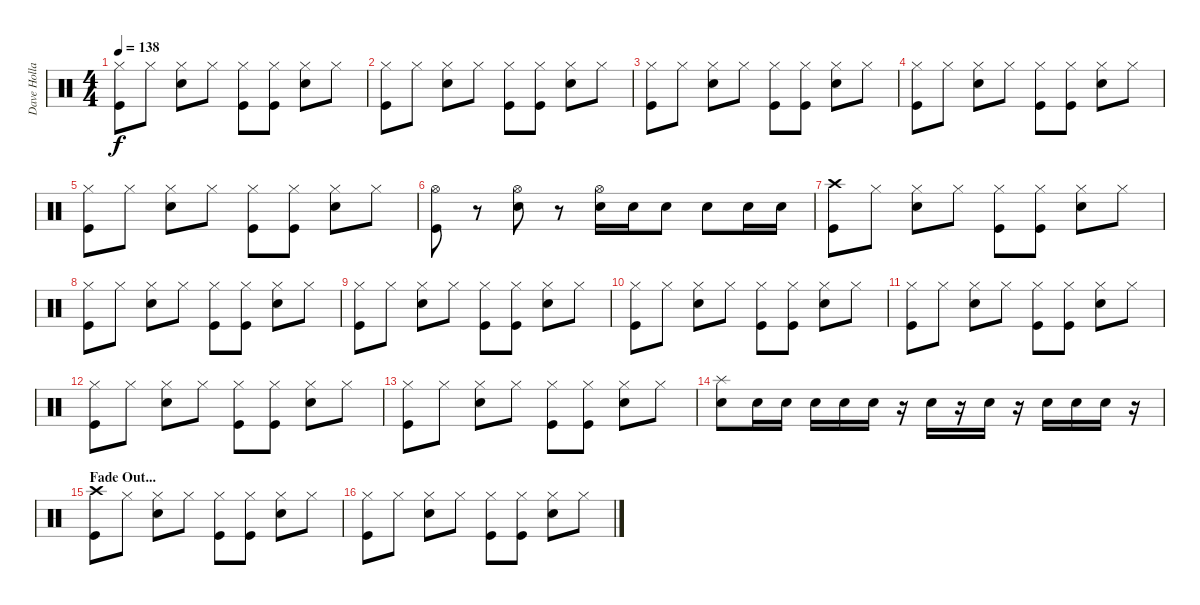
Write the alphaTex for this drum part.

\track ("Dave Holland" "Dave Holla") {instrument percussion}
\staff {score}
\articulation defaults
\ts (4 4)
\tempo 138
\clef neutral
\ks c
("Hi-Hat (closed)" "Kick (hit)").8{dy f} "Hi-Hat (closed)".8 ("Hi-Hat (closed)" "Electric Snare (hit)").8 "Hi-Hat (closed)".8 ("Hi-Hat (closed)" "Kick (hit)").8 ("Hi-Hat (closed)" "Kick (hit)").8 ("Hi-Hat (closed)" "Electric Snare (hit)").8 "Hi-Hat (closed)".8 |
("Hi-Hat (closed)" "Kick (hit)").8 "Hi-Hat (closed)".8 ("Hi-Hat (closed)" "Electric Snare (hit)").8 "Hi-Hat (closed)".8 ("Hi-Hat (closed)" "Kick (hit)").8 ("Hi-Hat (closed)" "Kick (hit)").8 ("Hi-Hat (closed)" "Electric Snare (hit)").8 "Hi-Hat (closed)".8 |
("Hi-Hat (closed)" "Kick (hit)").8 "Hi-Hat (closed)".8 ("Hi-Hat (closed)" "Electric Snare (hit)").8 "Hi-Hat (closed)".8 ("Hi-Hat (closed)" "Kick (hit)").8 ("Hi-Hat (closed)" "Kick (hit)").8 ("Hi-Hat (closed)" "Electric Snare (hit)").8 "Hi-Hat (closed)".8 |
("Hi-Hat (closed)" "Kick (hit)").8 "Hi-Hat (closed)".8 ("Hi-Hat (closed)" "Electric Snare (hit)").8 "Hi-Hat (closed)".8 ("Hi-Hat (closed)" "Kick (hit)").8 ("Hi-Hat (closed)" "Kick (hit)").8 ("Hi-Hat (closed)" "Electric Snare (hit)").8 "Hi-Hat (closed)".8 |
("Hi-Hat (closed)" "Kick (hit)").8 "Hi-Hat (closed)".8 ("Hi-Hat (closed)" "Electric Snare (hit)").8 "Hi-Hat (closed)".8 ("Hi-Hat (closed)" "Kick (hit)").8 ("Hi-Hat (closed)" "Kick (hit)").8 ("Hi-Hat (closed)" "Electric Snare (hit)").8 "Hi-Hat (closed)".8 |
("Hi-Hat (open)" "Kick (hit)").8 r.8 ("Hi-Hat (open)" "Electric Snare (hit)").8 r.8 ("Hi-Hat (open)" "Electric Snare (hit)").16 "Electric Snare (hit)".16 "Electric Snare (hit)".8 "Electric Snare (hit)".8 "Electric Snare (hit)".16 "Electric Snare (hit)".16 |
("Crash high (hit)" "Kick (hit)").8 "Hi-Hat (closed)".8 ("Hi-Hat (closed)" "Electric Snare (hit)").8 "Hi-Hat (closed)".8 ("Hi-Hat (closed)" "Kick (hit)").8 ("Hi-Hat (closed)" "Kick (hit)").8 ("Hi-Hat (closed)" "Electric Snare (hit)").8 "Hi-Hat (closed)".8 |
("Hi-Hat (closed)" "Kick (hit)").8 "Hi-Hat (closed)".8 ("Hi-Hat (closed)" "Electric Snare (hit)").8 "Hi-Hat (closed)".8 ("Hi-Hat (closed)" "Kick (hit)").8 ("Hi-Hat (closed)" "Kick (hit)").8 ("Hi-Hat (closed)" "Electric Snare (hit)").8 "Hi-Hat (closed)".8 |
("Hi-Hat (closed)" "Kick (hit)").8 "Hi-Hat (closed)".8 ("Hi-Hat (closed)" "Electric Snare (hit)").8 "Hi-Hat (closed)".8 ("Hi-Hat (closed)" "Kick (hit)").8 ("Hi-Hat (closed)" "Kick (hit)").8 ("Hi-Hat (closed)" "Electric Snare (hit)").8 "Hi-Hat (closed)".8 |
("Hi-Hat (closed)" "Kick (hit)").8 "Hi-Hat (closed)".8 ("Hi-Hat (closed)" "Electric Snare (hit)").8 "Hi-Hat (closed)".8 ("Hi-Hat (closed)" "Kick (hit)").8 ("Hi-Hat (closed)" "Kick (hit)").8 ("Hi-Hat (closed)" "Electric Snare (hit)").8 "Hi-Hat (closed)".8 |
("Hi-Hat (closed)" "Kick (hit)").8 "Hi-Hat (closed)".8 ("Hi-Hat (closed)" "Electric Snare (hit)").8 "Hi-Hat (closed)".8 ("Hi-Hat (closed)" "Kick (hit)").8 ("Hi-Hat (closed)" "Kick (hit)").8 ("Hi-Hat (closed)" "Electric Snare (hit)").8 "Hi-Hat (closed)".8 |
("Hi-Hat (closed)" "Kick (hit)").8 "Hi-Hat (closed)".8 ("Hi-Hat (closed)" "Electric Snare (hit)").8 "Hi-Hat (closed)".8 ("Hi-Hat (closed)" "Kick (hit)").8 ("Hi-Hat (closed)" "Kick (hit)").8 ("Hi-Hat (closed)" "Electric Snare (hit)").8 "Hi-Hat (closed)".8 |
("Hi-Hat (closed)" "Kick (hit)").8 "Hi-Hat (closed)".8 ("Hi-Hat (closed)" "Electric Snare (hit)").8 "Hi-Hat (closed)".8 ("Hi-Hat (closed)" "Kick (hit)").8 ("Hi-Hat (closed)" "Kick (hit)").8 ("Hi-Hat (closed)" "Electric Snare (hit)").8 "Hi-Hat (closed)".8 |
("Splash (hit)" "Electric Snare (hit)").8 "Electric Snare (hit)".16 "Electric Snare (hit)".16 "Electric Snare (hit)".16 "Electric Snare (hit)".16 "Electric Snare (hit)".16 r.16 "Electric Snare (hit)".16 r.16 "Electric Snare (hit)".16 r.16 "Electric Snare (hit)".16 "Electric Snare (hit)".16 "Electric Snare (hit)".16 r.16 |
\section ("" "Fade Out...")
("Crash high (hit)" "Kick (hit)").8 "Hi-Hat (closed)".8 ("Hi-Hat (closed)" "Electric Snare (hit)").8 "Hi-Hat (closed)".8 ("Hi-Hat (closed)" "Kick (hit)").8 ("Hi-Hat (closed)" "Kick (hit)").8 ("Hi-Hat (closed)" "Electric Snare (hit)").8 "Hi-Hat (closed)".8 |
("Hi-Hat (closed)" "Kick (hit)").8 "Hi-Hat (closed)".8 ("Hi-Hat (closed)" "Electric Snare (hit)").8 "Hi-Hat (closed)".8 ("Hi-Hat (closed)" "Kick (hit)").8 ("Hi-Hat (closed)" "Kick (hit)").8 ("Hi-Hat (closed)" "Electric Snare (hit)").8 "Hi-Hat (closed)".8
